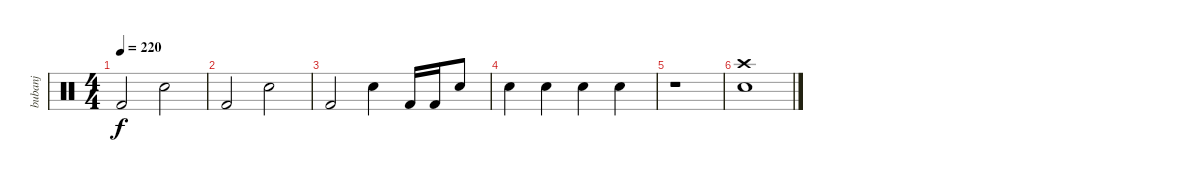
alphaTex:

\track ("bubanj" "bubanj") {instrument percussion}
\staff {score}
\articulation defaults
\ts (4 4)
\tempo 220
\clef neutral
\ks c "Kick (hit) 2".2{dy f} "Snare (hit) 2".2
|
"Kick (hit) 2".2 "Snare (hit) 2".2 |
"Kick (hit) 2".2 "Snare (hit) 2".4 "Kick (hit) 2".16 "Kick (hit) 2".16 "Snare (hit) 2".8 |
"Snare (hit) 2".4 "Snare (hit) 2".4 "Snare (hit) 2".4 "Snare (hit) 2".4 |
r.1 |
("Crash high (hit)" "Snare (hit) 2").1
